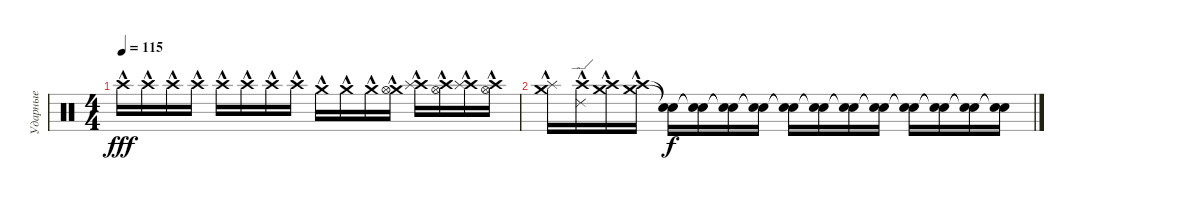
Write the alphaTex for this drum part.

\track ("Ударные" "Ударные") {instrument percussion}
\staff
\articulation defaults
\ts (4 4)
\tempo 115
\clef neutral
\ks c "Crash high (hit)"{hac}.16{dy fff volume 2} "Crash high (hit)"{hac}.16{volume 3} "Crash high (hit)"{hac}.16{volume 4} "Crash high (hit)"{hac}.16{volume 5} "Crash high (hit)"{hac}.16{volume 2} "Crash high (hit)"{hac}.16{volume 3} "Crash high (hit)"{hac}.16{volume 4} "Crash high (hit)"{hac}.16{volume 5} "Crash medium (hit)"{hac}.16{volume 6} "Crash medium (hit)"{hac}.16{volume 7} "Crash medium (hit)"{hac}.16{volume 8}
("Crash medium (hit)"{hac} "Hi-Hat (open)"{hac}).16{volume 9} ("Crash high (hit)"{hac} "Splash (hit)"{hac}).16{volume 10} ("Crash high (hit)"{hac} "Hi-Hat (open)"{hac}).16{volume 11} ("Crash high (hit)"{hac} "Splash (hit)"{hac}).16{volume 12} ("Crash high (hit)"{hac} "Hi-Hat (open)"{hac}).16{volume 13} |
("Crash medium (hit)"{hac} "Splash (hit)"{hac}).16{volume 14} ("Crash high (hit)"{hac} "Ride (edge) 2"{hac}).16{volume 15} ("Crash medium (hit)"{hac} "Crash high (hit)"{hac}).16{volume 16} ("Crash high (hit)"{hac} "Crash medium (hit)"{hac}).16 ("Snare (hit)"{t} "Snare (hit)"{t}).16{dy f} ("Snare (hit)"{t} "Snare (hit)"{t}).16 ("Snare (hit)"{t} "Snare (hit)"{t}).16 ("Snare (hit)"{t} "Snare (hit)"{t}).16 ("Snare (hit)"{t} "Snare (hit)"{t}).16 ("Snare (hit)"{t} "Snare (hit)"{t}).16 ("Snare (hit)"{t} "Snare (hit)"{t}).16 ("Snare (hit)"{t} "Snare (hit)"{t}).16 ("Snare (hit)"{t} "Snare (hit)"{t}).16 ("Snare (hit)"{t} "Snare (hit)"{t}).16 ("Snare (hit)"{t} "Snare (hit)"{t}).16 ("Snare (hit)"{t} "Snare (hit)"{t}).16
